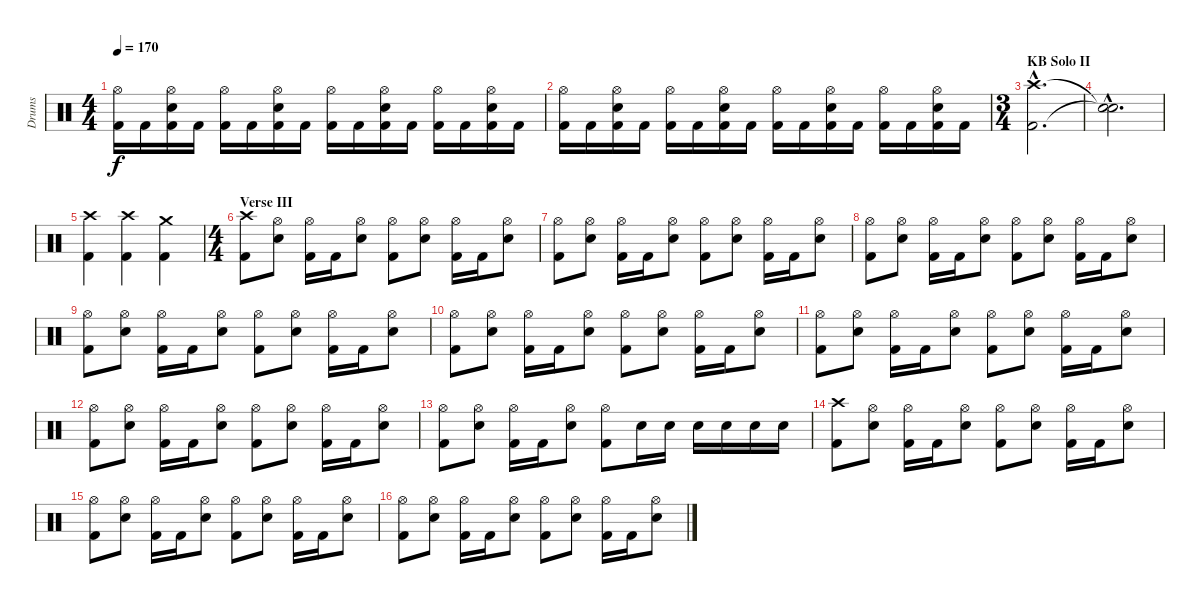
\track ("Drums" "Drums") {instrument percussion}
\staff {score}
\articulation defaults
\ts (4 4)
\tempo 170
\clef neutral
\ks c
("Hi-Hat (open)" "Kick (hit) 2").16{dy f} "Kick (hit) 2".16 ("Hi-Hat (open)" "Electric Snare (hit)" "Kick (hit) 2").16 "Kick (hit) 2".16 ("Hi-Hat (open)" "Kick (hit) 2").16 "Kick (hit) 2".16 ("Hi-Hat (open)" "Electric Snare (hit)" "Kick (hit) 2").16 "Kick (hit) 2".16 ("Hi-Hat (open)" "Kick (hit) 2").16 "Kick (hit) 2".16 ("Hi-Hat (open)" "Electric Snare (hit)" "Kick (hit) 2").16 "Kick (hit) 2".16 ("Hi-Hat (open)" "Kick (hit) 2").16 "Kick (hit) 2".16 ("Hi-Hat (open)" "Electric Snare (hit)" "Kick (hit) 2").16 "Kick (hit) 2".16 |
("Hi-Hat (open)" "Kick (hit) 2").16 "Kick (hit) 2".16 ("Hi-Hat (open)" "Electric Snare (hit)" "Kick (hit) 2").16 "Kick (hit) 2".16 ("Hi-Hat (open)" "Kick (hit) 2").16 "Kick (hit) 2".16 ("Hi-Hat (open)" "Electric Snare (hit)" "Kick (hit) 2").16 "Kick (hit) 2".16 ("Hi-Hat (open)" "Kick (hit) 2").16 "Kick (hit) 2".16 ("Hi-Hat (open)" "Electric Snare (hit)" "Kick (hit) 2").16 "Kick (hit) 2".16 ("Hi-Hat (open)" "Kick (hit) 2").16 "Kick (hit) 2".16 ("Hi-Hat (open)" "Electric Snare (hit)" "Kick (hit) 2").16 "Kick (hit) 2".16 |
\ts (3 4)
\section ("" "KB Solo II")
("Crash high (hit)"{hac} "Kick (hit) 2"{hac}).2{d} |
("Snare (hit)"{hac t} "Snare (hit)"{hac t}).2{d} |
("Crash high (hit)" "Kick (hit) 2").4 ("Crash high (hit)" "Kick (hit) 2").4 ("Crash medium (hit)" "Kick (hit) 2").4 |
\ts (4 4)
\section ("" "Verse III")
("Crash high (hit)" "Kick (hit) 2").8 ("Hi-Hat (open)" "Electric Snare (hit)").8 ("Hi-Hat (open)" "Kick (hit) 2").16 "Kick (hit) 2".16 ("Hi-Hat (open)" "Electric Snare (hit)").8 ("Hi-Hat (open)" "Kick (hit) 2").8 ("Hi-Hat (open)" "Electric Snare (hit)").8 ("Hi-Hat (open)" "Kick (hit) 2").16 "Kick (hit) 2".16 ("Hi-Hat (open)" "Electric Snare (hit)").8 |
("Hi-Hat (open)" "Kick (hit) 2").8 ("Hi-Hat (open)" "Electric Snare (hit)").8 ("Hi-Hat (open)" "Kick (hit) 2").16 "Kick (hit) 2".16 ("Hi-Hat (open)" "Electric Snare (hit)").8 ("Hi-Hat (open)" "Kick (hit) 2").8 ("Hi-Hat (open)" "Electric Snare (hit)").8 ("Hi-Hat (open)" "Kick (hit) 2").16 "Kick (hit) 2".16 ("Hi-Hat (open)" "Electric Snare (hit)").8 |
("Hi-Hat (open)" "Kick (hit) 2").8 ("Hi-Hat (open)" "Electric Snare (hit)").8 ("Hi-Hat (open)" "Kick (hit) 2").16 "Kick (hit) 2".16 ("Hi-Hat (open)" "Electric Snare (hit)").8 ("Hi-Hat (open)" "Kick (hit) 2").8 ("Hi-Hat (open)" "Electric Snare (hit)").8 ("Hi-Hat (open)" "Kick (hit) 2").16 "Kick (hit) 2".16 ("Hi-Hat (open)" "Electric Snare (hit)").8 |
("Hi-Hat (open)" "Kick (hit) 2").8 ("Hi-Hat (open)" "Electric Snare (hit)").8 ("Hi-Hat (open)" "Kick (hit) 2").16 "Kick (hit) 2".16 ("Hi-Hat (open)" "Electric Snare (hit)").8 ("Hi-Hat (open)" "Kick (hit) 2").8 ("Hi-Hat (open)" "Electric Snare (hit)").8 ("Hi-Hat (open)" "Kick (hit) 2").16 "Kick (hit) 2".16 ("Hi-Hat (open)" "Electric Snare (hit)").8 |
("Hi-Hat (open)" "Kick (hit) 2").8 ("Hi-Hat (open)" "Electric Snare (hit)").8 ("Hi-Hat (open)" "Kick (hit) 2").16 "Kick (hit) 2".16 ("Hi-Hat (open)" "Electric Snare (hit)").8 ("Hi-Hat (open)" "Kick (hit) 2").8 ("Hi-Hat (open)" "Electric Snare (hit)").8 ("Hi-Hat (open)" "Kick (hit) 2").16 "Kick (hit) 2".16 ("Hi-Hat (open)" "Electric Snare (hit)").8 |
("Hi-Hat (open)" "Kick (hit) 2").8 ("Hi-Hat (open)" "Electric Snare (hit)").8 ("Hi-Hat (open)" "Kick (hit) 2").16 "Kick (hit) 2".16 ("Hi-Hat (open)" "Electric Snare (hit)").8 ("Hi-Hat (open)" "Kick (hit) 2").8 ("Hi-Hat (open)" "Electric Snare (hit)").8 ("Hi-Hat (open)" "Kick (hit) 2").16 "Kick (hit) 2".16 ("Hi-Hat (open)" "Electric Snare (hit)").8 |
("Hi-Hat (open)" "Kick (hit) 2").8 ("Hi-Hat (open)" "Electric Snare (hit)").8 ("Hi-Hat (open)" "Kick (hit) 2").16 "Kick (hit) 2".16 ("Hi-Hat (open)" "Electric Snare (hit)").8 ("Hi-Hat (open)" "Kick (hit) 2").8 ("Hi-Hat (open)" "Electric Snare (hit)").8 ("Hi-Hat (open)" "Kick (hit) 2").16 "Kick (hit) 2".16 ("Hi-Hat (open)" "Electric Snare (hit)").8 |
("Hi-Hat (open)" "Kick (hit) 2").8 ("Hi-Hat (open)" "Electric Snare (hit)").8 ("Hi-Hat (open)" "Kick (hit) 2").16 "Kick (hit) 2".16 ("Hi-Hat (open)" "Electric Snare (hit)").8 ("Hi-Hat (open)" "Kick (hit) 2").8 "Electric Snare (hit)".16 "Electric Snare (hit)".16 "Electric Snare (hit)".16 "Electric Snare (hit)".16 "Electric Snare (hit)".16 "Electric Snare (hit)".16 |
("Crash high (hit)" "Kick (hit) 2").8 ("Hi-Hat (open)" "Electric Snare (hit)").8 ("Hi-Hat (open)" "Kick (hit) 2").16 "Kick (hit) 2".16 ("Hi-Hat (open)" "Electric Snare (hit)").8 ("Hi-Hat (open)" "Kick (hit) 2").8 ("Hi-Hat (open)" "Electric Snare (hit)").8 ("Hi-Hat (open)" "Kick (hit) 2").16 "Kick (hit) 2".16 ("Hi-Hat (open)" "Electric Snare (hit)").8 |
("Hi-Hat (open)" "Kick (hit) 2").8 ("Hi-Hat (open)" "Electric Snare (hit)").8 ("Hi-Hat (open)" "Kick (hit) 2").16 "Kick (hit) 2".16 ("Hi-Hat (open)" "Electric Snare (hit)").8 ("Hi-Hat (open)" "Kick (hit) 2").8 ("Hi-Hat (open)" "Electric Snare (hit)").8 ("Hi-Hat (open)" "Kick (hit) 2").16 "Kick (hit) 2".16 ("Hi-Hat (open)" "Electric Snare (hit)").8 |
("Hi-Hat (open)" "Kick (hit) 2").8 ("Hi-Hat (open)" "Electric Snare (hit)").8 ("Hi-Hat (open)" "Kick (hit) 2").16 "Kick (hit) 2".16 ("Hi-Hat (open)" "Electric Snare (hit)").8 ("Hi-Hat (open)" "Kick (hit) 2").8 ("Hi-Hat (open)" "Electric Snare (hit)").8 ("Hi-Hat (open)" "Kick (hit) 2").16 "Kick (hit) 2".16 ("Hi-Hat (open)" "Electric Snare (hit)").8
